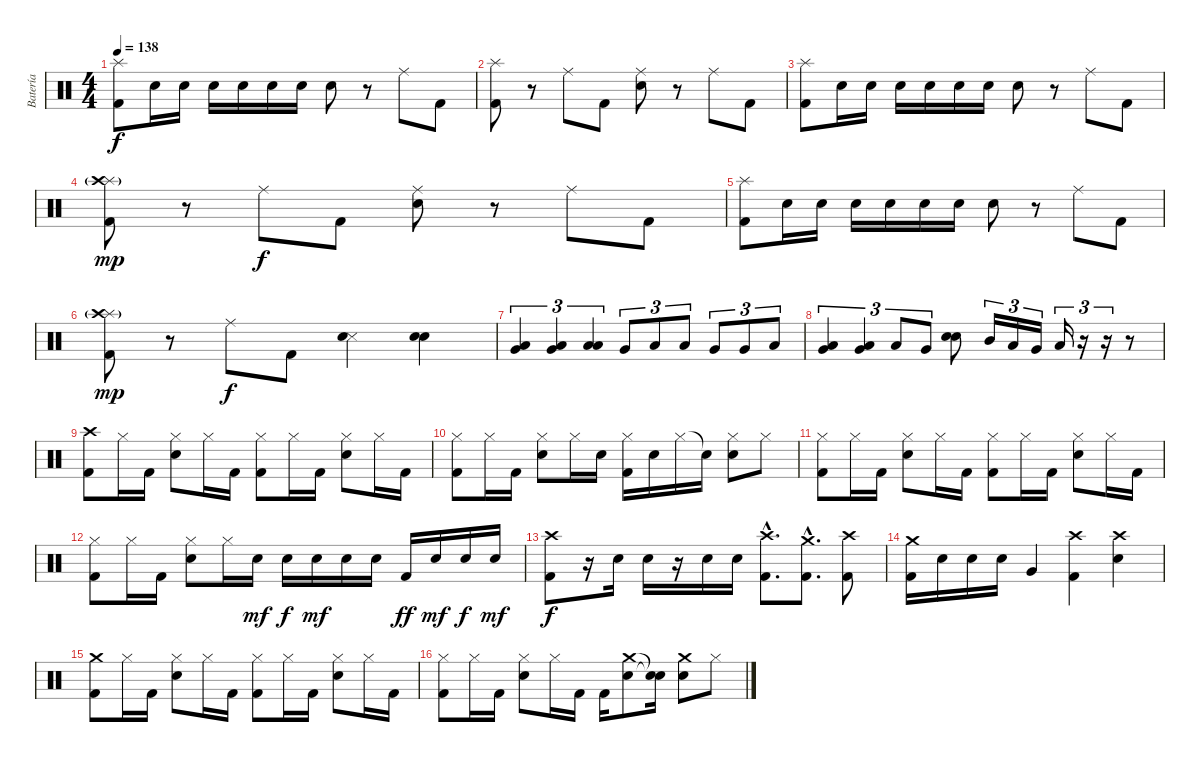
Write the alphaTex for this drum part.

\track ("Batería" "Batería") {instrument percussion}
\staff {score}
\articulation defaults
\ts (4 4)
\tempo 138
\clef neutral
\ks c
("Splash (hit)" "Kick (hit) 2").8{dy f} "Snare (hit) 2".16 "Snare (hit) 2".16 "Snare (hit) 2".16 "Snare (hit) 2".16 "Snare (hit) 2".16 "Snare (hit) 2".16 "Snare (hit) 2".8 r.8 "Ride (middle)".8 "Kick (hit) 2".8 |
("Splash (hit)" "Kick (hit) 2").8 r.8 "Ride (middle)".8 "Kick (hit) 2".8 ("Ride (middle)" "Snare (hit) 2").8 r.8 "Ride (middle)".8 "Kick (hit) 2".8 |
("Splash (hit)" "Kick (hit) 2").8 "Snare (hit) 2".16 "Snare (hit) 2".16 "Snare (hit) 2".16 "Snare (hit) 2".16 "Snare (hit) 2".16 "Snare (hit) 2".16 "Snare (hit) 2".8 r.8 "Ride (middle)".8 "Kick (hit) 2".8 |
("Splash (hit)" "Crash high (hit)"{g} "Kick (hit) 2").8{dy mp} r.8 "Ride (middle)".8{dy f} "Kick (hit) 2".8 ("Ride (middle)" "Snare (hit) 2").8 r.8 "Ride (middle)".8 "Kick (hit) 2".8 |
("Splash (hit)" "Kick (hit) 2").8 "Snare (hit) 2".16 "Snare (hit) 2".16 "Snare (hit) 2".16 "Snare (hit) 2".16 "Snare (hit) 2".16 "Snare (hit) 2".16 "Snare (hit) 2".8 r.8 "Ride (middle)".8 "Kick (hit) 2".8 |
("Splash (hit)" "Crash high (hit)"{g} "Kick (hit) 2").8{dy mp} r.8 "Ride (middle)".8{dy f} "Kick (hit) 2".8 ("Metronome (hit)" "Snare (hit) 2").4 ("Snare (hit) 2" "Snare (hit) 2").4 |
("Low Tom (hit)" "Very Low Tom (hit)").4{tu (3 2)} ("Low Tom (hit)" "Very Low Tom (hit)").4{tu (3 2)} ("Low Floor Tom (hit)" "Low Floor Tom (hit)").4{tu (3 2)} "Very Low Tom (hit)".8{tu (3 2)} "Low Tom (hit)".8{tu (3 2)} "Low Tom (hit)".8{tu (3 2)} "Very Low Tom (hit)".8{tu (3 2)} "Very Low Tom (hit)".8{tu (3 2)} "Low Floor Tom (hit)".8{tu (3 2)} |
("Very Low Tom (hit)" "Low Floor Tom (hit)").4{tu (3 2)} ("Very Low Tom (hit)" "Low Floor Tom (hit)").4{tu (3 2)} "Low Floor Tom (hit)".8{tu (3 2)} "Very Low Tom (hit)".8{tu (3 2)} ("Snare (hit) 2" "Snare (hit) 2").8 "Mid Tom (hit)".16{tu (3 2)} "Low Tom (hit)".16{tu (3 2)} "Very Low Tom (hit)".16{tu (3 2)} "Low Floor Tom (hit)".16{tu (3 2)} r.16{tu (3 2)} r.16{tu (3 2)} r.8 |
("Crash high (hit)" "Kick (hit) 2").8 "Hi-Hat (closed)".16 "Kick (hit) 2".16 ("Hi-Hat (closed)" "Snare (hit) 2").8 "Hi-Hat (closed)".16 "Kick (hit) 2".16 ("Hi-Hat (closed)" "Kick (hit) 2").8 "Hi-Hat (closed)".16 "Kick (hit) 2".16 ("Hi-Hat (closed)" "Snare (hit) 2").8 "Hi-Hat (closed)".16 "Kick (hit) 2".16 |
("Hi-Hat (closed)" "Kick (hit) 2").8 "Hi-Hat (closed)".16 "Kick (hit) 2".16 ("Hi-Hat (closed)" "Snare (hit) 2").8 "Hi-Hat (closed)".16 "Snare (hit) 2".16 ("Hi-Hat (closed)" "Kick (hit) 2").16 "Snare (hit) 2".16 "Hi-Hat (closed)".16 "Snare (hit)"{t}.16 ("Hi-Hat (closed)" "Snare (hit) 2").8 "Hi-Hat (closed)".8 |
("Hi-Hat (closed)" "Kick (hit) 2").8 "Hi-Hat (closed)".16 "Kick (hit) 2".16 ("Hi-Hat (closed)" "Snare (hit) 2").8 "Hi-Hat (closed)".16 "Kick (hit) 2".16 ("Hi-Hat (closed)" "Kick (hit) 2").8 "Hi-Hat (closed)".16 "Kick (hit) 2".16 ("Hi-Hat (closed)" "Snare (hit) 2").8 "Hi-Hat (closed)".16 "Kick (hit) 2".16 |
("Hi-Hat (closed)" "Kick (hit) 2").8 "Hi-Hat (closed)".16 "Kick (hit) 2".16 ("Hi-Hat (closed)" "Snare (hit) 2").8 "Hi-Hat (closed)".16 "Snare (hit) 2".16{dy mf} "Snare (hit) 2".16{dy f} "Snare (hit) 2".16{dy mf} "Snare (hit) 2".16 "Snare (hit) 2".16 "Kick (hit) 2".16{dy ff} "Snare (hit) 2".16{dy mf} "Snare (hit) 2".16{dy f} "Snare (hit) 2".16{dy mf} |
("Crash high (hit)" "Kick (hit) 2").8{dy f} r.16 "Snare (hit) 2".16 "Snare (hit) 2".16 r.16 "Snare (hit) 2".16 "Snare (hit) 2".16 ("Crash high (hit)"{hac} "Kick (hit) 2"{hac}).8{d} ("Crash medium (hit)"{hac} "Kick (hit) 2"{hac}).8{d} ("Crash high (hit)" "Kick (hit) 2").8 |
("Crash medium (hit)" "Kick (hit) 2").16 "Snare (hit) 2".16 "Snare (hit) 2".16 "Snare (hit) 2".16 "Very Low Tom (hit)".4 ("Crash high (hit)" "Kick (hit) 2").4 ("Crash high (hit)" "Snare (hit) 2").4 |
("Crash medium (hit)" "Kick (hit) 2").8 "Hi-Hat (closed)".16 "Kick (hit) 2".16 ("Hi-Hat (closed)" "Snare (hit) 2").8 "Hi-Hat (closed)".16 "Kick (hit) 2".16 ("Hi-Hat (closed)" "Kick (hit) 2").8 "Hi-Hat (closed)".16 "Kick (hit) 2".16 ("Hi-Hat (closed)" "Snare (hit) 2").8 "Hi-Hat (closed)".16 "Kick (hit) 2".16 |
("Hi-Hat (closed)" "Kick (hit) 2").8 "Hi-Hat (closed)".16 "Kick (hit) 2".16 ("Hi-Hat (closed)" "Snare (hit) 2").8 "Hi-Hat (closed)".16 "Kick (hit) 2".16 "Kick (hit) 2".16 ("Crash medium (hit)" "Snare (hit) 2").8 ("Snare (hit)"{t} "Snare (hit)"{t}).16 ("Crash medium (hit)" "Snare (hit) 2").8 "Hi-Hat (closed)".8
